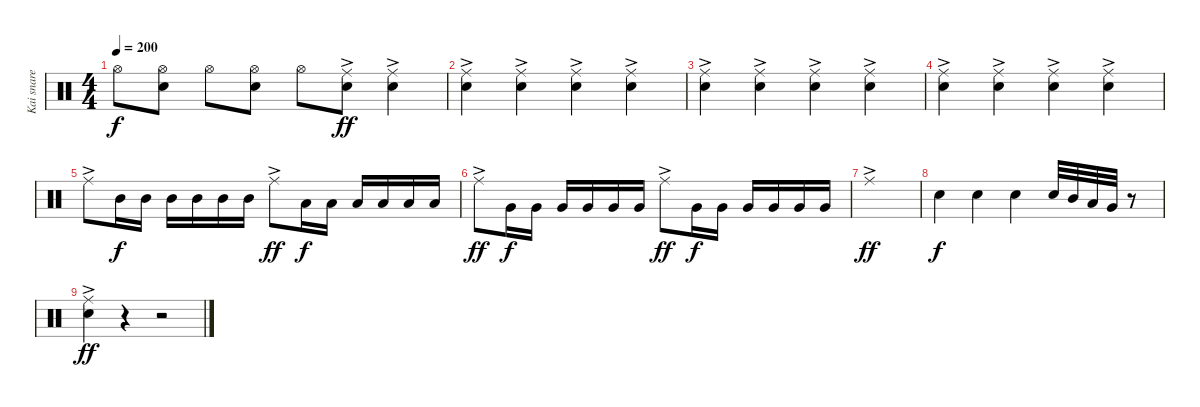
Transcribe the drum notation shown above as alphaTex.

\track ("Kai snare" "Kai snare") {instrument percussion}
\staff {score}
\articulation defaults
\ts (4 4)
\tempo 200
\clef neutral
\ks c "Hi-Hat (open)".8{dy f}
("Hi-Hat (open)" "Snare (hit) 2").8 "Hi-Hat (open)".8 ("Hi-Hat (open)" "Snare (hit) 2").8 "Hi-Hat (open)".8 ("Ride (middle)"{ac} "Snare (hit) 2").8{dy ff} ("Ride (middle)"{ac} "Snare (hit) 2").4 |
("Ride (middle)"{ac} "Snare (hit) 2").4 ("Ride (middle)"{ac} "Snare (hit) 2").4 ("Ride (middle)"{ac} "Snare (hit) 2").4 ("Ride (middle)"{ac} "Snare (hit) 2").4 |
("Ride (middle)"{ac} "Snare (hit) 2").4 ("Ride (middle)"{ac} "Snare (hit) 2").4 ("Ride (middle)"{ac} "Snare (hit) 2").4 ("Ride (middle)"{ac} "Snare (hit) 2").4 |
("Ride (middle)"{ac} "Snare (hit) 2").4 ("Ride (middle)"{ac} "Snare (hit) 2").4 ("Ride (middle)"{ac} "Snare (hit) 2").4 ("Ride (middle)"{ac} "Snare (hit) 2").4 |
"Ride (middle)"{ac}.8 "Mid Tom (hit)".16{dy f} "Mid Tom (hit)".16 "Mid Tom (hit)".16 "Mid Tom (hit)".16 "Mid Tom (hit)".16 "Mid Tom (hit)".16 "Ride (middle)"{ac}.8{dy ff} "Low Tom (hit)".16{dy f} "Low Tom (hit)".16 "Low Tom (hit)".16 "Low Tom (hit)".16 "Low Tom (hit)".16 "Low Tom (hit)".16 |
"Ride (middle)"{ac}.8{dy ff} "Very Low Tom (hit)".16{dy f} "Very Low Tom (hit)".16 "Very Low Tom (hit)".16 "Very Low Tom (hit)".16 "Very Low Tom (hit)".16 "Very Low Tom (hit)".16 "Ride (middle)"{ac}.8{dy ff} "Very Low Tom (hit)".16{dy f} "Very Low Tom (hit)".16 "Very Low Tom (hit)".16 "Very Low Tom (hit)".16 "Very Low Tom (hit)".16 "Very Low Tom (hit)".16 |
"Ride (middle)"{ac}.1{dy ff} |
"Snare (hit) 2".4{dy f} "Snare (hit) 2".4 "Snare (hit) 2".4 "Snare (hit) 2".32 "Mid Tom (hit)".32 "Low Tom (hit)".32 "Very Low Tom (hit)".32 r.8 |
("Ride (middle)"{ac} "Snare (hit) 2").4{dy ff} r.4 r.2
